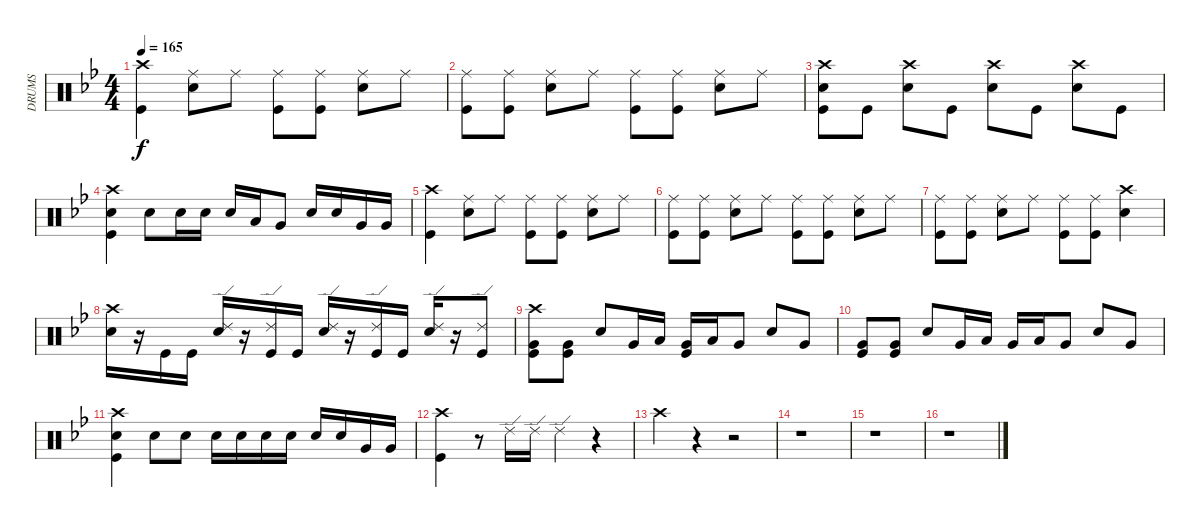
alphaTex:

\track ("DRUMS" "DRUMS") {instrument percussion}
\staff {score}
\articulation defaults
\ts (4 4)
\tempo 165
\clef neutral
\ks bb
("Crash high (hit)" "Kick (hit)").4{dy f} ("Ride (middle)" "Electric Snare (hit)").8 "Ride (middle)".8 ("Ride (middle)" "Kick (hit)").8 ("Ride (middle)" "Kick (hit)").8 ("Ride (middle)" "Electric Snare (hit)").8 "Ride (middle)".8 |
("Ride (middle)" "Kick (hit)").8 ("Ride (middle)" "Kick (hit)").8 ("Ride (middle)" "Electric Snare (hit)").8 "Ride (middle)".8 ("Ride (middle)" "Kick (hit)").8 ("Ride (middle)" "Kick (hit)").8 ("Ride (middle)" "Electric Snare (hit)").8 "Ride (middle)".8 |
("Crash high (hit)" "Electric Snare (hit)" "Kick (hit)").8 "Kick (hit)".8 ("Crash high (hit)" "Electric Snare (hit)").8 "Kick (hit)".8 ("Crash high (hit)" "Electric Snare (hit)").8 "Kick (hit)".8 ("Crash high (hit)" "Electric Snare (hit)").8 "Kick (hit)".8 |
("Crash high (hit)" "Electric Snare (hit)" "Kick (hit)").4 "Electric Snare (hit)".8 "Electric Snare (hit)".16 "Electric Snare (hit)".16 "Electric Snare (hit)".16 "Low Tom (hit)".16 "Very Low Tom (hit)".8 "Electric Snare (hit)".16 "Electric Snare (hit)".16 "Very Low Tom (hit)".16 "Very Low Tom (hit)".16 |
("Crash high (hit)" "Kick (hit)").4 ("Ride (middle)" "Electric Snare (hit)").8 "Ride (middle)".8 ("Ride (middle)" "Kick (hit)").8 ("Ride (middle)" "Kick (hit)").8 ("Ride (middle)" "Electric Snare (hit)").8 "Ride (middle)".8 |
("Ride (middle)" "Kick (hit)").8 ("Ride (middle)" "Kick (hit)").8 ("Ride (middle)" "Electric Snare (hit)").8 "Ride (middle)".8 ("Ride (middle)" "Kick (hit)").8 ("Ride (middle)" "Kick (hit)").8 ("Ride (middle)" "Electric Snare (hit)").8 "Ride (middle)".8 |
("Ride (middle)" "Kick (hit)").8 ("Ride (middle)" "Kick (hit)").8 ("Ride (middle)" "Electric Snare (hit)").8 "Ride (middle)".8 ("Ride (middle)" "Kick (hit)").8 ("Ride (middle)" "Kick (hit)").8 ("Crash high (hit)" "Electric Snare (hit)").4 |
("Crash high (hit)" "Electric Snare (hit)").16 r.16 "Kick (hit)".16 "Kick (hit)".16 ("Ride (edge) 2" "Electric Snare (hit)").16 r.16 ("Ride (edge) 2" "Kick (hit)").16 "Kick (hit)".16 ("Ride (edge) 2" "Electric Snare (hit)").16 r.16 ("Ride (edge) 2" "Kick (hit)").16 "Kick (hit)".16 ("Ride (edge) 2" "Electric Snare (hit)").16 r.16 ("Ride (edge) 2" "Kick (hit)").8 |
("Crash high (hit)" "Very Low Tom (hit)" "Kick (hit)").8 ("Very Low Tom (hit)" "Kick (hit)").8 "Electric Snare (hit)".8 "Very Low Tom (hit)".16 "Low Tom (hit)".16 ("Very Low Tom (hit)" "Kick (hit)").16 "Low Tom (hit)".16 "Very Low Tom (hit)".8 "Electric Snare (hit)".8 "Very Low Tom (hit)".8 |
("Very Low Tom (hit)" "Kick (hit)").8 ("Very Low Tom (hit)" "Kick (hit)").8 "Electric Snare (hit)".8 "Very Low Tom (hit)".16 "Low Tom (hit)".16 "Very Low Tom (hit)".16 "Low Tom (hit)".16 "Very Low Tom (hit)".8 "Electric Snare (hit)".8 "Very Low Tom (hit)".8 |
("Crash high (hit)" "Electric Snare (hit)" "Kick (hit)").4 "Electric Snare (hit)".8 "Electric Snare (hit)".8 "Electric Snare (hit)".16 "Electric Snare (hit)".16 "Electric Snare (hit)".16 "Electric Snare (hit)".16 "Electric Snare (hit)".16 "Electric Snare (hit)".16 "Very Low Tom (hit)".16 "Very Low Tom (hit)".16 |
("Crash high (hit)" "Kick (hit)").4 r.8 "Ride (edge) 2".16 "Ride (edge) 2".16 "Ride (edge) 2".4 r.4 |
"Crash high (hit)".4 r.4 r.2 |
r.1 |
r.1 |
r.1
